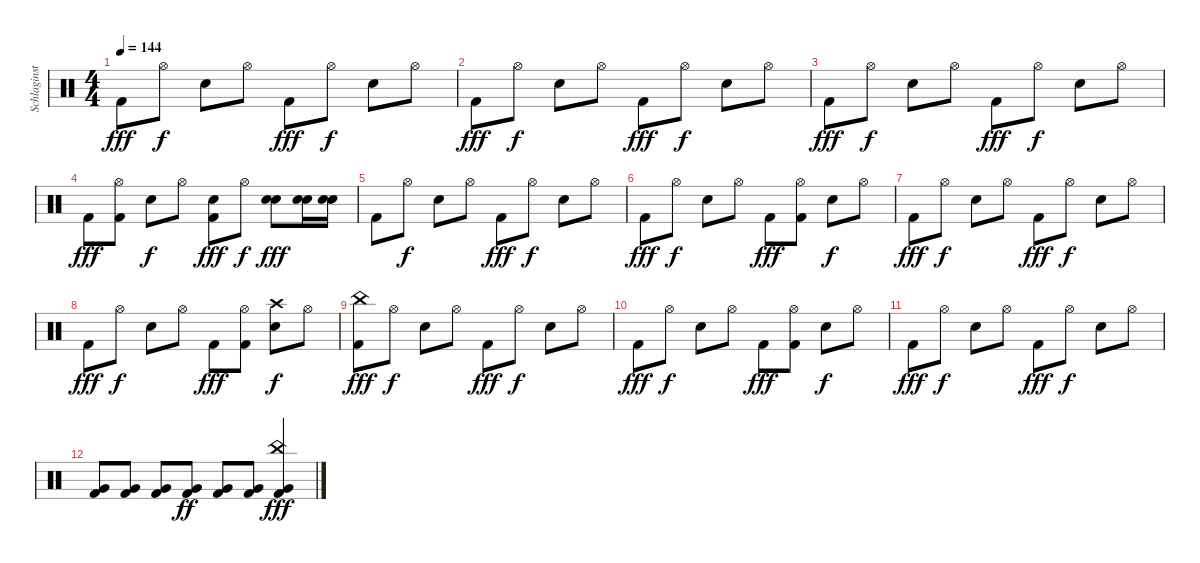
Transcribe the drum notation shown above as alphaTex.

\track ("Schlaginstrumente - Auswahl" "Schlaginst") {instrument percussion}
\staff {score}
\articulation defaults
\ts (4 4)
\tempo 144
\clef neutral
\ks c "Kick (hit) 2".8{dy fff} "Hi-Hat (open)".8{dy f} "Snare (hit) 2".8 "Hi-Hat (open)".8 "Kick (hit) 2".8{dy fff} "Hi-Hat (open)".8{dy f} "Snare (hit) 2".8 "Hi-Hat (open)".8
|
"Kick (hit) 2".8{dy fff} "Hi-Hat (open)".8{dy f} "Snare (hit) 2".8 "Hi-Hat (open)".8 "Kick (hit) 2".8{dy fff} "Hi-Hat (open)".8{dy f} "Snare (hit) 2".8 "Hi-Hat (open)".8 |
"Kick (hit) 2".8{dy fff} "Hi-Hat (open)".8{dy f} "Snare (hit) 2".8 "Hi-Hat (open)".8 "Kick (hit) 2".8{dy fff} "Hi-Hat (open)".8{dy f} "Snare (hit) 2".8 "Hi-Hat (open)".8 |
"Kick (hit) 2".8{dy fff} ("Hi-Hat (open)" "Kick (hit) 2").8 "Snare (hit) 2".8{dy f} "Hi-Hat (open)".8 ("Snare (hit) 2" "Kick (hit) 2").8{dy fff} "Hi-Hat (open)".8{dy f} ("Snare (hit) 2" "Snare (hit) 2").8{dy fff} ("Snare (hit) 2" "Snare (hit) 2").16 ("Snare (hit) 2" "Snare (hit) 2").16 |
"Kick (hit) 2".8 "Hi-Hat (open)".8{dy f} "Snare (hit) 2".8 "Hi-Hat (open)".8 "Kick (hit) 2".8{dy fff} "Hi-Hat (open)".8{dy f} "Snare (hit) 2".8 "Hi-Hat (open)".8 |
"Kick (hit) 2".8{dy fff} "Hi-Hat (open)".8{dy f} "Snare (hit) 2".8 "Hi-Hat (open)".8 "Kick (hit) 2".8{dy fff} ("Hi-Hat (open)" "Kick (hit) 2").8 "Snare (hit) 2".8{dy f} "Hi-Hat (open)".8 |
"Kick (hit) 2".8{dy fff} "Hi-Hat (open)".8{dy f} "Snare (hit) 2".8 "Hi-Hat (open)".8 "Kick (hit) 2".8{dy fff} "Hi-Hat (open)".8{dy f} "Snare (hit) 2".8 "Hi-Hat (open)".8 |
"Kick (hit) 2".8{dy fff} "Hi-Hat (open)".8{dy f} "Snare (hit) 2".8 "Hi-Hat (open)".8 "Kick (hit) 2".8{dy fff} ("Hi-Hat (open)" "Kick (hit) 2").8 ("Crash high (hit)" "Snare (hit) 2").8{dy f} "Hi-Hat (open)".8 |
("China (hit)" "Kick (hit) 2").8{dy fff} "Hi-Hat (open)".8{dy f} "Snare (hit) 2".8 "Hi-Hat (open)".8 "Kick (hit) 2".8{dy fff} "Hi-Hat (open)".8{dy f} "Snare (hit) 2".8 "Hi-Hat (open)".8 |
"Kick (hit) 2".8{dy fff} "Hi-Hat (open)".8{dy f} "Snare (hit) 2".8 "Hi-Hat (open)".8 "Kick (hit) 2".8{dy fff} ("Hi-Hat (open)" "Kick (hit) 2").8 "Snare (hit) 2".8{dy f} "Hi-Hat (open)".8 |
"Kick (hit) 2".8{dy fff} "Hi-Hat (open)".8{dy f} "Snare (hit) 2".8 "Hi-Hat (open)".8 "Kick (hit) 2".8{dy fff} "Hi-Hat (open)".8{dy f} "Snare (hit) 2".8 "Hi-Hat (open)".8 |
("Very Low Tom (hit)" "Kick (hit) 2").8 ("Very Low Tom (hit)" "Kick (hit) 2").8 ("Very Low Tom (hit)" "Kick (hit) 2").8 ("Very Low Tom (hit)" "Kick (hit) 2").8{dy ff} ("Very Low Tom (hit)" "Kick (hit) 2").8 ("Very Low Tom (hit)" "Kick (hit) 2").8 ("China (hit)" "Very Low Tom (hit)" "Kick (hit) 2").4{dy fff}
